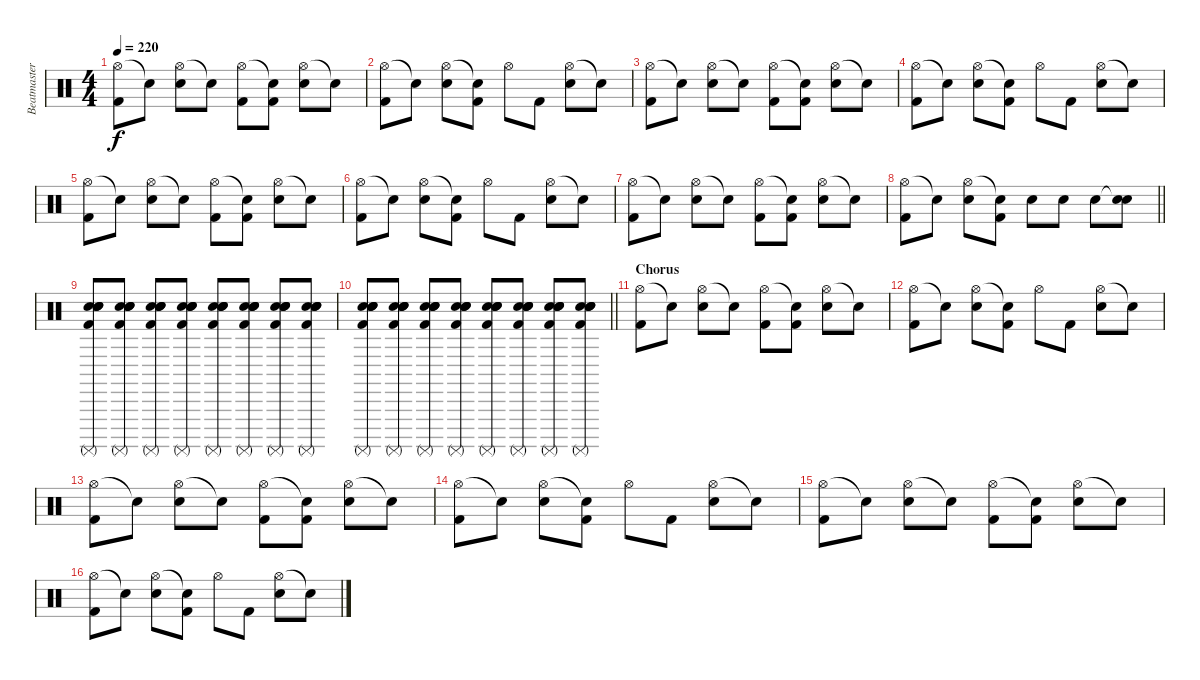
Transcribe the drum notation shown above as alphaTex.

\track ("Beatmaster V" "Beatmaster") {instrument percussion}
\staff {score}
\articulation defaults
\ts (4 4)
\tempo 220
\clef neutral
\ks c
("Hi-Hat (open)" "Kick (hit) 2").8{dy f} "Snare (hit)"{t}.8 ("Hi-Hat (open)" "Snare (hit) 2").8 "Snare (hit)"{t}.8 ("Hi-Hat (open)" "Kick (hit) 2").8 ("Snare (hit)"{t} "Kick (hit) 2").8 ("Hi-Hat (open)" "Snare (hit) 2").8 "Snare (hit)"{t}.8 |
("Hi-Hat (open)" "Kick (hit) 2").8 "Snare (hit)"{t}.8 ("Hi-Hat (open)" "Snare (hit) 2").8 ("Snare (hit)"{t} "Kick (hit) 2").8 "Hi-Hat (open)".8 "Kick (hit) 2".8 ("Hi-Hat (open)" "Snare (hit) 2").8 "Snare (hit)"{t}.8 |
("Hi-Hat (open)" "Kick (hit) 2").8 "Snare (hit)"{t}.8 ("Hi-Hat (open)" "Snare (hit) 2").8 "Snare (hit)"{t}.8 ("Hi-Hat (open)" "Kick (hit) 2").8 ("Snare (hit)"{t} "Kick (hit) 2").8 ("Hi-Hat (open)" "Snare (hit) 2").8 "Snare (hit)"{t}.8 |
("Hi-Hat (open)" "Kick (hit) 2").8 "Snare (hit)"{t}.8 ("Hi-Hat (open)" "Snare (hit) 2").8 ("Snare (hit)"{t} "Kick (hit) 2").8 "Hi-Hat (open)".8 "Kick (hit) 2".8 ("Hi-Hat (open)" "Snare (hit) 2").8 "Snare (hit)"{t}.8 |
("Hi-Hat (open)" "Kick (hit) 2").8 "Snare (hit)"{t}.8 ("Hi-Hat (open)" "Snare (hit) 2").8 "Snare (hit)"{t}.8 ("Hi-Hat (open)" "Kick (hit) 2").8 ("Snare (hit)"{t} "Kick (hit) 2").8 ("Hi-Hat (open)" "Snare (hit) 2").8 "Snare (hit)"{t}.8 |
("Hi-Hat (open)" "Kick (hit) 2").8 "Snare (hit)"{t}.8 ("Hi-Hat (open)" "Snare (hit) 2").8 ("Snare (hit)"{t} "Kick (hit) 2").8 "Hi-Hat (open)".8 "Kick (hit) 2".8 ("Hi-Hat (open)" "Snare (hit) 2").8 "Snare (hit)"{t}.8 |
("Hi-Hat (open)" "Kick (hit) 2").8 "Snare (hit)"{t}.8 ("Hi-Hat (open)" "Snare (hit) 2").8 "Snare (hit)"{t}.8 ("Hi-Hat (open)" "Kick (hit) 2").8 ("Snare (hit)"{t} "Kick (hit) 2").8 ("Hi-Hat (open)" "Snare (hit) 2").8 "Snare (hit)"{t}.8 |
\barLineRight lightlight
("Hi-Hat (open)" "Kick (hit) 2").8 "Snare (hit)"{t}.8 ("Hi-Hat (open)" "Snare (hit) 2").8 ("Snare (hit)"{t} "Kick (hit) 2").8 "Snare (hit) 2".8 "Snare (hit) 2".8 "Snare (hit) 2".8 ("Snare (hit)"{t} "Snare (hit) 2").8 |
("Surdo (mute)" "Kick (hit) 2" "Snare (hit) 2" "Snare (hit) 2" "Electric Snare (hit)" "Electric Snare (hit)").8 ("Surdo (mute)" "Kick (hit) 2" "Snare (hit) 2" "Snare (hit) 2" "Electric Snare (hit)" "Electric Snare (hit)").8 ("Surdo (mute)" "Kick (hit) 2" "Snare (hit) 2" "Snare (hit) 2" "Electric Snare (hit)" "Electric Snare (hit)").8 ("Surdo (mute)" "Kick (hit) 2" "Snare (hit) 2" "Snare (hit) 2" "Electric Snare (hit)" "Electric Snare (hit)").8 ("Surdo (mute)" "Kick (hit) 2" "Snare (hit) 2" "Snare (hit) 2" "Electric Snare (hit)" "Electric Snare (hit)").8 ("Surdo (mute)" "Kick (hit) 2" "Snare (hit) 2" "Snare (hit) 2" "Electric Snare (hit)" "Electric Snare (hit)").8 ("Surdo (mute)" "Kick (hit) 2" "Snare (hit) 2" "Snare (hit) 2" "Electric Snare (hit)" "Electric Snare (hit)").8 ("Surdo (mute)" "Kick (hit) 2" "Snare (hit) 2" "Snare (hit) 2" "Electric Snare (hit)" "Electric Snare (hit)").8 |
\barLineRight lightlight
("Surdo (mute)" "Kick (hit) 2" "Snare (hit) 2" "Snare (hit) 2" "Electric Snare (hit)" "Electric Snare (hit)").8 ("Surdo (mute)" "Kick (hit) 2" "Snare (hit) 2" "Snare (hit) 2" "Electric Snare (hit)" "Electric Snare (hit)").8 ("Surdo (mute)" "Kick (hit) 2" "Snare (hit) 2" "Snare (hit) 2" "Electric Snare (hit)" "Electric Snare (hit)").8 ("Surdo (mute)" "Kick (hit) 2" "Snare (hit) 2" "Snare (hit) 2" "Electric Snare (hit)" "Electric Snare (hit)").8 ("Surdo (mute)" "Kick (hit) 2" "Snare (hit) 2" "Snare (hit) 2" "Electric Snare (hit)" "Electric Snare (hit)").8 ("Surdo (mute)" "Kick (hit) 2" "Snare (hit) 2" "Snare (hit) 2" "Electric Snare (hit)" "Electric Snare (hit)").8 ("Surdo (mute)" "Kick (hit) 2" "Snare (hit) 2" "Snare (hit) 2" "Electric Snare (hit)" "Electric Snare (hit)").8 ("Surdo (mute)" "Kick (hit) 2" "Snare (hit) 2" "Snare (hit) 2" "Electric Snare (hit)" "Electric Snare (hit)").8 |
\section ("" "Chorus")
("Hi-Hat (open)" "Kick (hit) 2").8 "Snare (hit)"{t}.8 ("Hi-Hat (open)" "Snare (hit) 2").8 "Snare (hit)"{t}.8 ("Hi-Hat (open)" "Kick (hit) 2").8 ("Snare (hit)"{t} "Kick (hit) 2").8 ("Hi-Hat (open)" "Snare (hit) 2").8 "Snare (hit)"{t}.8 |
("Hi-Hat (open)" "Kick (hit) 2").8 "Snare (hit)"{t}.8 ("Hi-Hat (open)" "Snare (hit) 2").8 ("Snare (hit)"{t} "Kick (hit) 2").8 "Hi-Hat (open)".8 "Kick (hit) 2".8 ("Hi-Hat (open)" "Snare (hit) 2").8 "Snare (hit)"{t}.8 |
("Hi-Hat (open)" "Kick (hit) 2").8 "Snare (hit)"{t}.8 ("Hi-Hat (open)" "Snare (hit) 2").8 "Snare (hit)"{t}.8 ("Hi-Hat (open)" "Kick (hit) 2").8 ("Snare (hit)"{t} "Kick (hit) 2").8 ("Hi-Hat (open)" "Snare (hit) 2").8 "Snare (hit)"{t}.8 |
("Hi-Hat (open)" "Kick (hit) 2").8 "Snare (hit)"{t}.8 ("Hi-Hat (open)" "Snare (hit) 2").8 ("Snare (hit)"{t} "Kick (hit) 2").8 "Hi-Hat (open)".8 "Kick (hit) 2".8 ("Hi-Hat (open)" "Snare (hit) 2").8 "Snare (hit)"{t}.8 |
("Hi-Hat (open)" "Kick (hit) 2").8 "Snare (hit)"{t}.8 ("Hi-Hat (open)" "Snare (hit) 2").8 "Snare (hit)"{t}.8 ("Hi-Hat (open)" "Kick (hit) 2").8 ("Snare (hit)"{t} "Kick (hit) 2").8 ("Hi-Hat (open)" "Snare (hit) 2").8 "Snare (hit)"{t}.8 |
("Hi-Hat (open)" "Kick (hit) 2").8 "Snare (hit)"{t}.8 ("Hi-Hat (open)" "Snare (hit) 2").8 ("Snare (hit)"{t} "Kick (hit) 2").8 "Hi-Hat (open)".8 "Kick (hit) 2".8 ("Hi-Hat (open)" "Snare (hit) 2").8 "Snare (hit)"{t}.8
